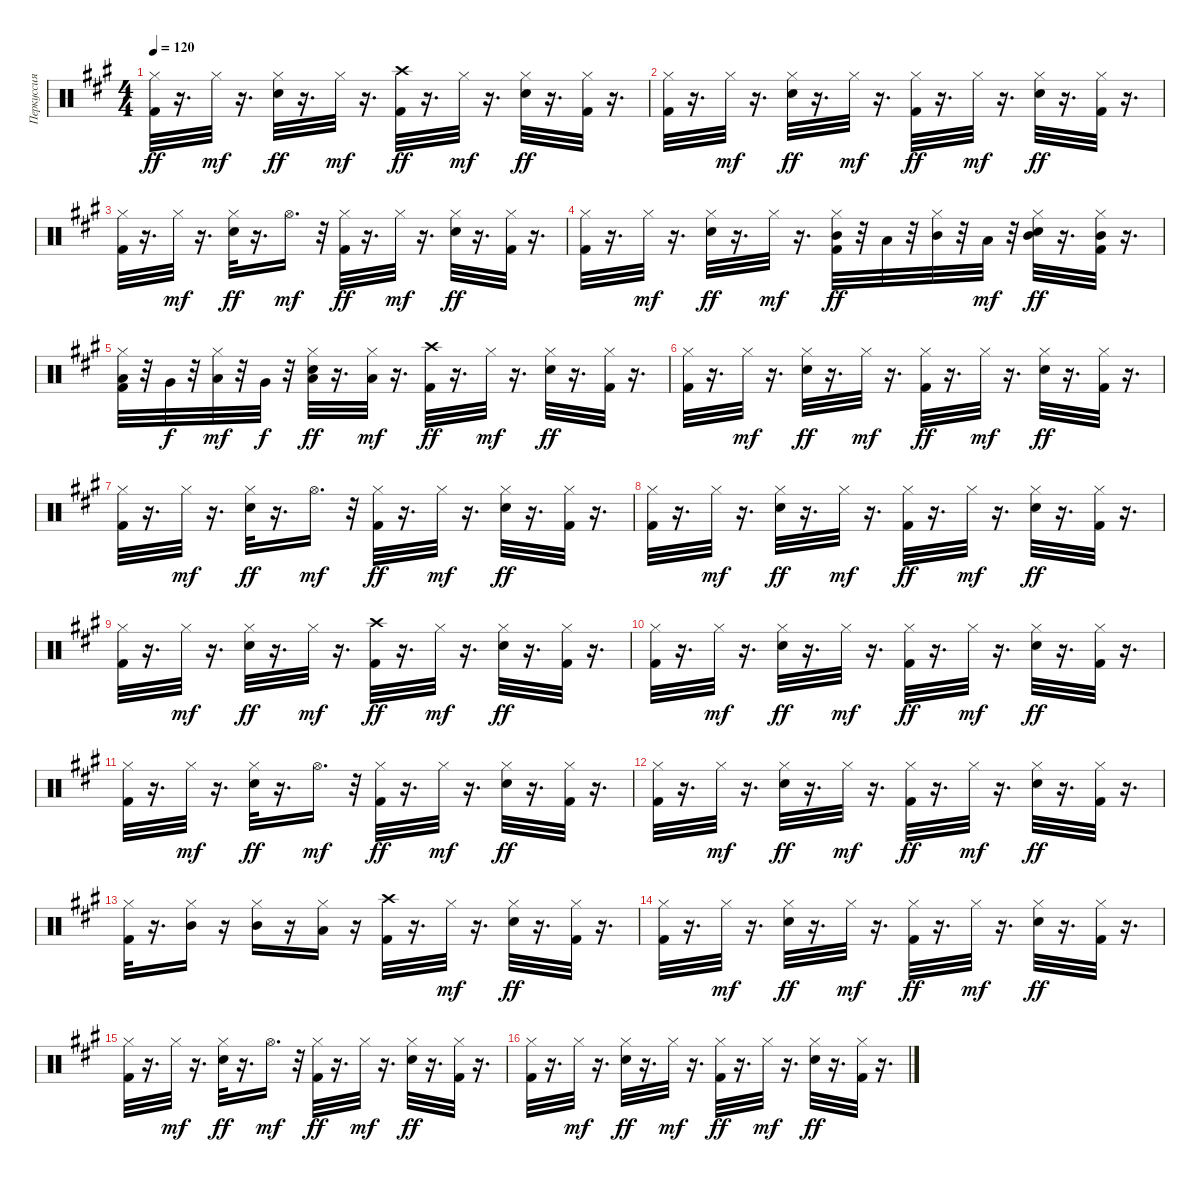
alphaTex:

\track ("Перкуссия" "Перкуссия") {instrument percussion}
\staff {score}
\articulation defaults
\ts (4 4)
\tempo 120
\clef neutral
\ks f#minor
("Hi-Hat (closed)" "Kick (hit) 2").32{dy ff} r.16{d} "Hi-Hat (closed)".32{dy mf} r.16{d} ("Hi-Hat (closed)" "Snare (hit) 2").32{dy ff} r.16{d} "Hi-Hat (closed)".32{dy mf} r.16{d} ("Crash high (hit)" "Kick (hit) 2").32{dy ff} r.16{d} "Hi-Hat (closed)".32{dy mf} r.16{d} ("Hi-Hat (closed)" "Snare (hit) 2").32{dy ff} r.16{d} ("Hi-Hat (closed)" "Kick (hit) 2").32 r.16{d} |
("Hi-Hat (closed)" "Kick (hit) 2").32 r.16{d} "Hi-Hat (closed)".32{dy mf} r.16{d} ("Hi-Hat (closed)" "Snare (hit) 2").32{dy ff} r.16{d} "Hi-Hat (closed)".32{dy mf} r.16{d} ("Hi-Hat (closed)" "Kick (hit) 2").32{dy ff} r.16{d} "Hi-Hat (closed)".32{dy mf} r.16{d} ("Hi-Hat (closed)" "Snare (hit) 2").32{dy ff} r.16{d} ("Hi-Hat (closed)" "Kick (hit) 2").32 r.16{d} |
("Hi-Hat (closed)" "Kick (hit) 2").32 r.16{d} "Hi-Hat (closed)".32{dy mf} r.16{d} ("Hi-Hat (closed)" "Snare (hit) 2").32{dy ff} r.16{d} "Hi-Hat (open)".16{d dy mf} r.32 ("Hi-Hat (closed)" "Kick (hit) 2").32{dy ff} r.16{d} "Hi-Hat (closed)".32{dy mf} r.16{d} ("Hi-Hat (closed)" "Snare (hit) 2").32{dy ff} r.16{d} ("Hi-Hat (closed)" "Kick (hit) 2").32 r.16{d} |
("Hi-Hat (closed)" "Kick (hit) 2").32 r.16{d} "Hi-Hat (closed)".32{dy mf} r.16{d} ("Hi-Hat (closed)" "Snare (hit) 2").32{dy ff} r.16{d} "Hi-Hat (closed)".32{dy mf} r.16{d} ("Hi-Hat (closed)" "Kick (hit) 2" "Mid Tom (hit)").32{dy ff} r.32 "Low Tom (hit)".32 r.32 ("Hi-Hat (closed)" "Mid Tom (hit)").32 r.32 "Low Tom (hit)".32{dy mf} r.32 ("Hi-Hat (closed)" "Snare (hit) 2" "Mid Tom (hit)").32{dy ff} r.16{d} ("Hi-Hat (closed)" "Kick (hit) 2" "Mid Tom (hit)").32 r.16{d} |
("Hi-Hat (closed)" "Kick (hit) 2" "Low Tom (hit)").32 r.32 "Very Low Tom (hit)".32{dy f} r.32 ("Hi-Hat (closed)" "Low Tom (hit)").32{dy mf} r.32 "Very Low Tom (hit)".32{dy f} r.32 ("Hi-Hat (closed)" "Low Tom (hit)" "Snare (hit) 2").32{dy ff} r.16{d} ("Hi-Hat (closed)" "Low Tom (hit)").32{dy mf} r.16{d} ("Crash high (hit)" "Kick (hit) 2").32{dy ff} r.16{d} "Hi-Hat (closed)".32{dy mf} r.16{d} ("Hi-Hat (closed)" "Snare (hit) 2").32{dy ff} r.16{d} ("Hi-Hat (closed)" "Kick (hit) 2").32 r.16{d} |
("Hi-Hat (closed)" "Kick (hit) 2").32 r.16{d} "Hi-Hat (closed)".32{dy mf} r.16{d} ("Hi-Hat (closed)" "Snare (hit) 2").32{dy ff} r.16{d} "Hi-Hat (closed)".32{dy mf} r.16{d} ("Hi-Hat (closed)" "Kick (hit) 2").32{dy ff} r.16{d} "Hi-Hat (closed)".32{dy mf} r.16{d} ("Hi-Hat (closed)" "Snare (hit) 2").32{dy ff} r.16{d} ("Hi-Hat (closed)" "Kick (hit) 2").32 r.16{d} |
("Hi-Hat (closed)" "Kick (hit) 2").32 r.16{d} "Hi-Hat (closed)".32{dy mf} r.16{d} ("Hi-Hat (closed)" "Snare (hit) 2").32{dy ff} r.16{d} "Hi-Hat (open)".16{d dy mf} r.32 ("Hi-Hat (closed)" "Kick (hit) 2").32{dy ff} r.16{d} "Hi-Hat (closed)".32{dy mf} r.16{d} ("Hi-Hat (closed)" "Snare (hit) 2").32{dy ff} r.16{d} ("Hi-Hat (closed)" "Kick (hit) 2").32 r.16{d} |
("Hi-Hat (closed)" "Kick (hit) 2").32 r.16{d} "Hi-Hat (closed)".32{dy mf} r.16{d} ("Hi-Hat (closed)" "Snare (hit) 2").32{dy ff} r.16{d} "Hi-Hat (closed)".32{dy mf} r.16{d} ("Hi-Hat (closed)" "Kick (hit) 2").32{dy ff} r.16{d} "Hi-Hat (closed)".32{dy mf} r.16{d} ("Hi-Hat (closed)" "Snare (hit) 2").32{dy ff} r.16{d} ("Hi-Hat (closed)" "Kick (hit) 2").32 r.16{d} |
("Hi-Hat (closed)" "Kick (hit) 2").32 r.16{d} "Hi-Hat (closed)".32{dy mf} r.16{d} ("Hi-Hat (closed)" "Snare (hit) 2").32{dy ff} r.16{d} "Hi-Hat (closed)".32{dy mf} r.16{d} ("Crash high (hit)" "Kick (hit) 2").32{dy ff} r.16{d} "Hi-Hat (closed)".32{dy mf} r.16{d} ("Hi-Hat (closed)" "Snare (hit) 2").32{dy ff} r.16{d} ("Hi-Hat (closed)" "Kick (hit) 2").32 r.16{d} |
("Hi-Hat (closed)" "Kick (hit) 2").32 r.16{d} "Hi-Hat (closed)".32{dy mf} r.16{d} ("Hi-Hat (closed)" "Snare (hit) 2").32{dy ff} r.16{d} "Hi-Hat (closed)".32{dy mf} r.16{d} ("Hi-Hat (closed)" "Kick (hit) 2").32{dy ff} r.16{d} "Hi-Hat (closed)".32{dy mf} r.16{d} ("Hi-Hat (closed)" "Snare (hit) 2").32{dy ff} r.16{d} ("Hi-Hat (closed)" "Kick (hit) 2").32 r.16{d} |
("Hi-Hat (closed)" "Kick (hit) 2").32 r.16{d} "Hi-Hat (closed)".32{dy mf} r.16{d} ("Hi-Hat (closed)" "Snare (hit) 2").32{dy ff} r.16{d} "Hi-Hat (open)".16{d dy mf} r.32 ("Hi-Hat (closed)" "Kick (hit) 2").32{dy ff} r.16{d} "Hi-Hat (closed)".32{dy mf} r.16{d} ("Hi-Hat (closed)" "Snare (hit) 2").32{dy ff} r.16{d} ("Hi-Hat (closed)" "Kick (hit) 2").32 r.16{d} |
("Hi-Hat (closed)" "Kick (hit) 2").32 r.16{d} "Hi-Hat (closed)".32{dy mf} r.16{d} ("Hi-Hat (closed)" "Snare (hit) 2").32{dy ff} r.16{d} "Hi-Hat (closed)".32{dy mf} r.16{d} ("Hi-Hat (closed)" "Kick (hit) 2").32{dy ff} r.16{d} "Hi-Hat (closed)".32{dy mf} r.16{d} ("Hi-Hat (closed)" "Snare (hit) 2").32{dy ff} r.16{d} ("Hi-Hat (closed)" "Kick (hit) 2").32 r.16{d} |
("Hi-Hat (closed)" "Kick (hit) 2").32 r.16{d} ("Hi-Hat (closed)" "Mid Tom (hit)").16 r.16 ("Hi-Hat (closed)" "Mid Tom (hit)").16 r.16 ("Hi-Hat (closed)" "Low Tom (hit)").16 r.16 ("Crash high (hit)" "Kick (hit) 2").32 r.16{d} "Hi-Hat (closed)".32{dy mf} r.16{d} ("Hi-Hat (closed)" "Snare (hit) 2").32{dy ff} r.16{d} ("Hi-Hat (closed)" "Kick (hit) 2").32 r.16{d} |
("Hi-Hat (closed)" "Kick (hit) 2").32 r.16{d} "Hi-Hat (closed)".32{dy mf} r.16{d} ("Hi-Hat (closed)" "Snare (hit) 2").32{dy ff} r.16{d} "Hi-Hat (closed)".32{dy mf} r.16{d} ("Hi-Hat (closed)" "Kick (hit) 2").32{dy ff} r.16{d} "Hi-Hat (closed)".32{dy mf} r.16{d} ("Hi-Hat (closed)" "Snare (hit) 2").32{dy ff} r.16{d} ("Hi-Hat (closed)" "Kick (hit) 2").32 r.16{d} |
("Hi-Hat (closed)" "Kick (hit) 2").32 r.16{d} "Hi-Hat (closed)".32{dy mf} r.16{d} ("Hi-Hat (closed)" "Snare (hit) 2").32{dy ff} r.16{d} "Hi-Hat (open)".16{d dy mf} r.32 ("Hi-Hat (closed)" "Kick (hit) 2").32{dy ff} r.16{d} "Hi-Hat (closed)".32{dy mf} r.16{d} ("Hi-Hat (closed)" "Snare (hit) 2").32{dy ff} r.16{d} ("Hi-Hat (closed)" "Kick (hit) 2").32 r.16{d} |
("Hi-Hat (closed)" "Kick (hit) 2").32 r.16{d} "Hi-Hat (closed)".32{dy mf} r.16{d} ("Hi-Hat (closed)" "Snare (hit) 2").32{dy ff} r.16{d} "Hi-Hat (closed)".32{dy mf} r.16{d} ("Hi-Hat (closed)" "Kick (hit) 2").32{dy ff} r.16{d} "Hi-Hat (closed)".32{dy mf} r.16{d} ("Hi-Hat (closed)" "Snare (hit) 2").32{dy ff} r.16{d} ("Hi-Hat (closed)" "Kick (hit) 2").32 r.16{d}
